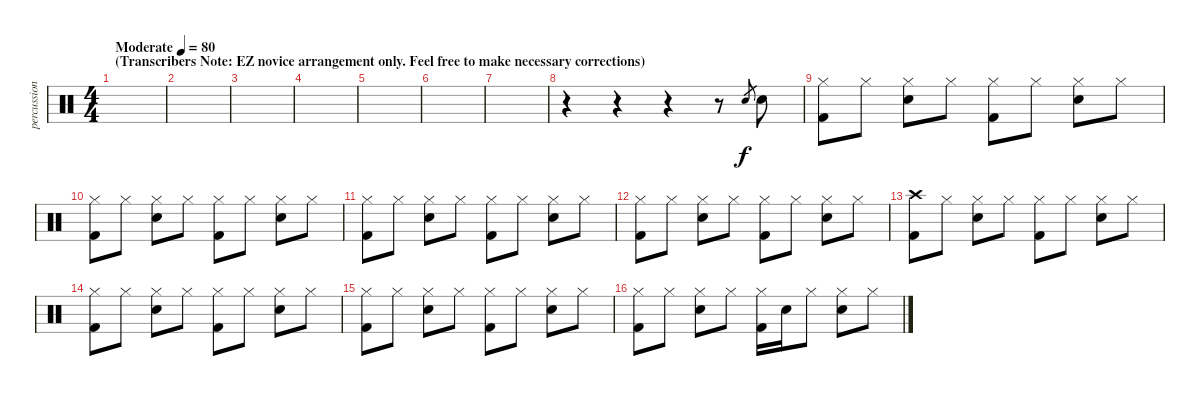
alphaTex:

\track ("percussion" "percussion") {instrument percussion}
\staff {score}
\articulation defaults
\ts (4 4)
\section ("" "(Transcribers Note: EZ novice arrangement only. Feel free to make necessary corrections)")
\tempo (80 "Moderate")
\clef neutral
\ks c
|
|
|
|
|
|
|
r.4 r.4 r.4 r.8 "Snare (hit) 2".8{gr} "Snare (hit) 2".8 |
("Hi-Hat (closed)" "Kick (hit) 2").8 "Hi-Hat (closed)".8 ("Snare (hit) 2" "Hi-Hat (closed)").8 "Hi-Hat (closed)".8 ("Hi-Hat (closed)" "Kick (hit) 2").8 "Hi-Hat (closed)".8 ("Snare (hit) 2" "Hi-Hat (closed)").8 "Hi-Hat (closed)".8 |
("Hi-Hat (closed)" "Kick (hit) 2").8 "Hi-Hat (closed)".8 ("Snare (hit) 2" "Hi-Hat (closed)").8 "Hi-Hat (closed)".8 ("Hi-Hat (closed)" "Kick (hit) 2").8 "Hi-Hat (closed)".8 ("Snare (hit) 2" "Hi-Hat (closed)").8 "Hi-Hat (closed)".8 |
("Hi-Hat (closed)" "Kick (hit) 2").8 "Hi-Hat (closed)".8 ("Snare (hit) 2" "Hi-Hat (closed)").8 "Hi-Hat (closed)".8 ("Hi-Hat (closed)" "Kick (hit) 2").8 "Hi-Hat (closed)".8 ("Snare (hit) 2" "Hi-Hat (closed)").8 "Hi-Hat (closed)".8 |
("Hi-Hat (closed)" "Kick (hit) 2").8 "Hi-Hat (closed)".8 ("Snare (hit) 2" "Hi-Hat (closed)").8 "Hi-Hat (closed)".8 ("Hi-Hat (closed)" "Kick (hit) 2").8 "Hi-Hat (closed)".8 ("Snare (hit) 2" "Hi-Hat (closed)").8 "Hi-Hat (closed)".8 |
("Crash high (hit)" "Kick (hit) 2").8 "Hi-Hat (closed)".8 ("Snare (hit) 2" "Hi-Hat (closed)").8 "Hi-Hat (closed)".8 ("Hi-Hat (closed)" "Kick (hit) 2").8 "Hi-Hat (closed)".8 ("Snare (hit) 2" "Hi-Hat (closed)").8 "Hi-Hat (closed)".8 |
("Hi-Hat (closed)" "Kick (hit) 2").8 "Hi-Hat (closed)".8 ("Snare (hit) 2" "Hi-Hat (closed)").8 "Hi-Hat (closed)".8 ("Hi-Hat (closed)" "Kick (hit) 2").8 "Hi-Hat (closed)".8 ("Snare (hit) 2" "Hi-Hat (closed)").8 "Hi-Hat (closed)".8 |
("Hi-Hat (closed)" "Kick (hit) 2").8 "Hi-Hat (closed)".8 ("Snare (hit) 2" "Hi-Hat (closed)").8 "Hi-Hat (closed)".8 ("Hi-Hat (closed)" "Kick (hit) 2").8 "Hi-Hat (closed)".8 ("Snare (hit) 2" "Hi-Hat (closed)").8 "Hi-Hat (closed)".8 |
("Hi-Hat (closed)" "Kick (hit) 2").8 "Hi-Hat (closed)".8 ("Snare (hit) 2" "Hi-Hat (closed)").8 "Hi-Hat (closed)".8 ("Hi-Hat (closed)" "Kick (hit) 2").16 "Snare (hit) 2".16 "Hi-Hat (closed)".8 ("Snare (hit) 2" "Hi-Hat (closed)").8 "Hi-Hat (closed)".8
